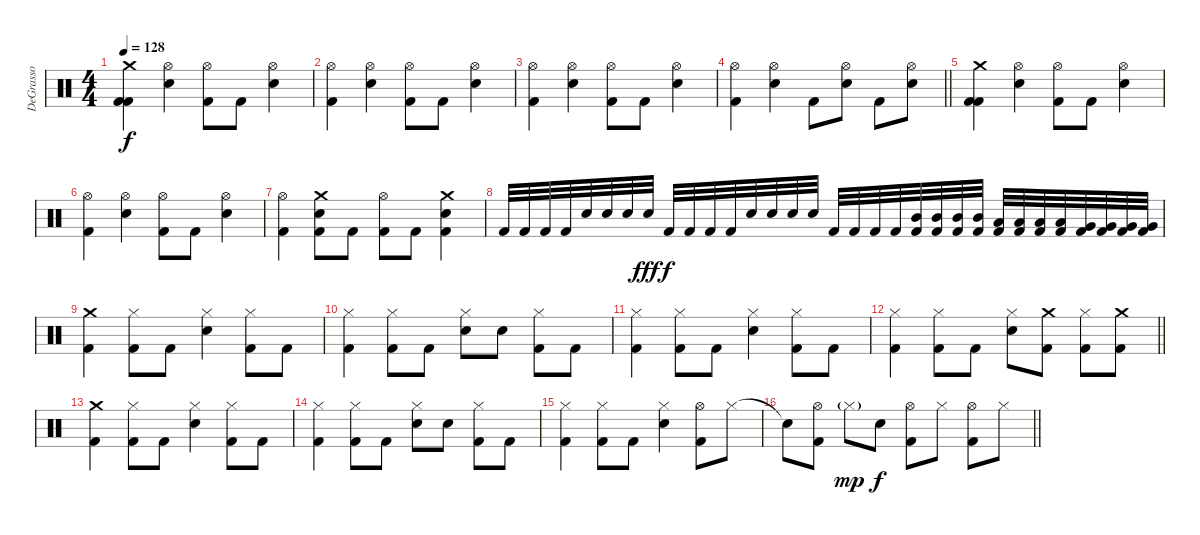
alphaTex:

\track ("DeGrasso" "DeGrasso") {instrument percussion}
\staff {score}
\articulation defaults
\ts (4 4)
\tempo 128
\clef neutral
\ks c
("Crash medium (hit)" "Kick (hit) 2" "Kick (hit) 2").4{dy f} ("Hi-Hat (open)" "Electric Snare (hit)").4 ("Hi-Hat (open)" "Kick (hit) 2").8 "Kick (hit) 2".8 ("Hi-Hat (open)" "Electric Snare (hit)").4 |
("Hi-Hat (open)" "Kick (hit) 2").4 ("Hi-Hat (open)" "Electric Snare (hit)").4 ("Hi-Hat (open)" "Kick (hit) 2").8 "Kick (hit) 2".8 ("Hi-Hat (open)" "Electric Snare (hit)").4 |
("Hi-Hat (open)" "Kick (hit) 2").4 ("Hi-Hat (open)" "Electric Snare (hit)").4 ("Hi-Hat (open)" "Kick (hit) 2").8 "Kick (hit) 2".8 ("Hi-Hat (open)" "Electric Snare (hit)").4 |
\barLineRight lightlight
("Hi-Hat (open)" "Kick (hit) 2").4 ("Hi-Hat (open)" "Electric Snare (hit)").4 "Kick (hit) 2".8 ("Hi-Hat (open)" "Electric Snare (hit)").8 "Kick (hit) 2".8 ("Hi-Hat (open)" "Electric Snare (hit)").8 |
("Crash medium (hit)" "Kick (hit) 2" "Kick (hit) 2").4 ("Hi-Hat (open)" "Electric Snare (hit)").4 ("Hi-Hat (open)" "Kick (hit) 2").8 "Kick (hit) 2".8 ("Hi-Hat (open)" "Electric Snare (hit)").4 |
("Hi-Hat (open)" "Kick (hit) 2").4 ("Hi-Hat (open)" "Electric Snare (hit)").4 ("Hi-Hat (open)" "Kick (hit) 2").8 "Kick (hit) 2".8 ("Hi-Hat (open)" "Electric Snare (hit)").4 |
("Hi-Hat (open)" "Kick (hit) 2").4 ("Crash medium (hit)" "Electric Snare (hit)" "Kick (hit) 2").8 "Kick (hit) 2".8 ("Hi-Hat (open)" "Kick (hit) 2").8 "Kick (hit) 2".8 ("Crash medium (hit)" "Electric Snare (hit)" "Kick (hit) 2").4 |
"Kick (hit) 2".32 "Kick (hit) 2".32 "Kick (hit) 2".32 "Kick (hit) 2".32 "Electric Snare (hit)".32 "Electric Snare (hit)".32 "Electric Snare (hit)".32 "Electric Snare (hit)".32{dy fff} "Kick (hit) 2".32{dy f} "Kick (hit) 2".32 "Kick (hit) 2".32 "Kick (hit) 2".32 "Electric Snare (hit)".32 "Electric Snare (hit)".32 "Electric Snare (hit)".32 "Electric Snare (hit)".32 "Kick (hit) 2".32 "Kick (hit) 2".32 "Kick (hit) 2".32 "Kick (hit) 2".32 ("Mid Tom (hit)" "Kick (hit) 2").32 ("Mid Tom (hit)" "Kick (hit) 2").32 ("Mid Tom (hit)" "Kick (hit) 2").32 ("Mid Tom (hit)" "Kick (hit) 2").32 ("Low Tom (hit)" "Kick (hit) 2").32 ("Low Tom (hit)" "Kick (hit) 2").32 ("Low Tom (hit)" "Kick (hit) 2").32 ("Low Tom (hit)" "Kick (hit) 2").32 ("Very Low Tom (hit)" "Kick (hit) 2").32 ("Very Low Tom (hit)" "Kick (hit) 2").32 ("Very Low Tom (hit)" "Kick (hit) 2").32 ("Very Low Tom (hit)" "Kick (hit) 2").32 |
("Crash medium (hit)" "Kick (hit) 2").4 ("Hi-Hat (closed)" "Kick (hit) 2").8 "Kick (hit) 2".8 ("Hi-Hat (closed)" "Electric Snare (hit)").4 ("Hi-Hat (closed)" "Kick (hit) 2").8 "Kick (hit) 2".8 |
("Hi-Hat (closed)" "Kick (hit) 2").4 ("Hi-Hat (closed)" "Kick (hit) 2").8 "Kick (hit) 2".8 ("Hi-Hat (closed)" "Electric Snare (hit)").8 "Electric Snare (hit)".8 ("Hi-Hat (closed)" "Kick (hit) 2").8 "Kick (hit) 2".8 |
("Hi-Hat (closed)" "Kick (hit) 2").4 ("Hi-Hat (closed)" "Kick (hit) 2").8 "Kick (hit) 2".8 ("Hi-Hat (closed)" "Electric Snare (hit)").4 ("Hi-Hat (closed)" "Kick (hit) 2").8 "Kick (hit) 2".8 |
\barLineRight lightlight
("Hi-Hat (closed)" "Kick (hit) 2").4 ("Hi-Hat (closed)" "Kick (hit) 2").8 "Kick (hit) 2".8 ("Hi-Hat (closed)" "Electric Snare (hit)").8 ("Crash medium (hit)" "Kick (hit) 2").8 ("Hi-Hat (closed)" "Kick (hit) 2").8 ("Crash medium (hit)" "Kick (hit) 2").8 |
("Crash medium (hit)" "Kick (hit) 2").4 ("Hi-Hat (closed)" "Kick (hit) 2").8 "Kick (hit) 2".8 ("Hi-Hat (closed)" "Electric Snare (hit)").4 ("Hi-Hat (closed)" "Kick (hit) 2").8 "Kick (hit) 2".8 |
("Hi-Hat (closed)" "Kick (hit) 2").4 ("Hi-Hat (closed)" "Kick (hit) 2").8 "Kick (hit) 2".8 ("Hi-Hat (closed)" "Electric Snare (hit)").8 "Electric Snare (hit)".8 ("Hi-Hat (closed)" "Kick (hit) 2").8 "Kick (hit) 2".8 |
("Hi-Hat (closed)" "Kick (hit) 2").4 ("Hi-Hat (closed)" "Kick (hit) 2").8 "Kick (hit) 2".8 ("Hi-Hat (closed)" "Electric Snare (hit)").4 ("Hi-Hat (open)" "Kick (hit) 2").8 "Hi-Hat (closed)".8 |
\barLineRight lightlight "Snare (hit)"{t}.8
("Hi-Hat (open)" "Kick (hit) 2").8 "Hi-Hat (closed)"{g}.8{dy mp} "Electric Snare (hit)".8{dy f} ("Hi-Hat (open)" "Kick (hit) 2").8 "Hi-Hat (closed)".8 ("Hi-Hat (open)" "Kick (hit) 2").8 "Hi-Hat (closed)".8
